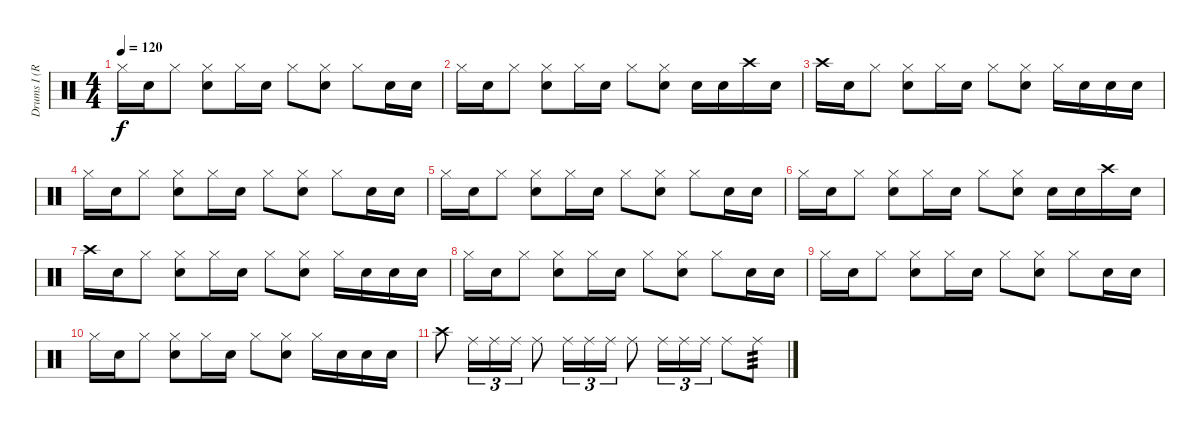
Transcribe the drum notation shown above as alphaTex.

\track ("Drums I (Ruka)" "Drums I (R") {instrument percussion}
\staff {score}
\articulation defaults
\ts (4 4)
\tempo 120
\clef neutral
\ks c "Hi-Hat (closed)".16{dy f} "Snare (hit) 2".16 "Hi-Hat (closed)".8
("Hi-Hat (closed)" "Snare (hit) 2").8 "Hi-Hat (closed)".16 "Snare (hit) 2".16 "Hi-Hat (closed)".8 ("Hi-Hat (closed)" "Snare (hit) 2").8 "Hi-Hat (closed)".8 "Snare (hit) 2".16 "Snare (hit) 2".16 |
"Hi-Hat (closed)".16 "Snare (hit) 2".16 "Hi-Hat (closed)".8 ("Hi-Hat (closed)" "Snare (hit) 2").8 "Hi-Hat (closed)".16 "Snare (hit) 2".16 "Hi-Hat (closed)".8 ("Hi-Hat (closed)" "Snare (hit) 2").8 "Snare (hit) 2".16 "Snare (hit) 2".16 "Crash high (hit)".16 "Snare (hit) 2".16 |
"Crash high (hit)".16 "Snare (hit) 2".16 "Hi-Hat (closed)".8 ("Hi-Hat (closed)" "Snare (hit) 2").8 "Hi-Hat (closed)".16 "Snare (hit) 2".16 "Hi-Hat (closed)".8 ("Hi-Hat (closed)" "Snare (hit) 2").8 "Hi-Hat (closed)".16 "Snare (hit) 2".16 "Snare (hit) 2".16 "Snare (hit) 2".16 |
"Hi-Hat (closed)".16 "Snare (hit) 2".16 "Hi-Hat (closed)".8 ("Hi-Hat (closed)" "Snare (hit) 2").8 "Hi-Hat (closed)".16 "Snare (hit) 2".16 "Hi-Hat (closed)".8 ("Hi-Hat (closed)" "Snare (hit) 2").8 "Hi-Hat (closed)".8 "Snare (hit) 2".16 "Snare (hit) 2".16 |
"Hi-Hat (closed)".16 "Snare (hit) 2".16 "Hi-Hat (closed)".8 ("Hi-Hat (closed)" "Snare (hit) 2").8 "Hi-Hat (closed)".16 "Snare (hit) 2".16 "Hi-Hat (closed)".8 ("Hi-Hat (closed)" "Snare (hit) 2").8 "Hi-Hat (closed)".8 "Snare (hit) 2".16 "Snare (hit) 2".16 |
"Hi-Hat (closed)".16 "Snare (hit) 2".16 "Hi-Hat (closed)".8 ("Hi-Hat (closed)" "Snare (hit) 2").8 "Hi-Hat (closed)".16 "Snare (hit) 2".16 "Hi-Hat (closed)".8 ("Hi-Hat (closed)" "Snare (hit) 2").8 "Snare (hit) 2".16 "Snare (hit) 2".16 "Crash high (hit)".16 "Snare (hit) 2".16 |
"Crash high (hit)".16 "Snare (hit) 2".16 "Hi-Hat (closed)".8 ("Hi-Hat (closed)" "Snare (hit) 2").8 "Hi-Hat (closed)".16 "Snare (hit) 2".16 "Hi-Hat (closed)".8 ("Hi-Hat (closed)" "Snare (hit) 2").8 "Hi-Hat (closed)".16 "Snare (hit) 2".16 "Snare (hit) 2".16 "Snare (hit) 2".16 |
"Hi-Hat (closed)".16 "Snare (hit) 2".16 "Hi-Hat (closed)".8 ("Hi-Hat (closed)" "Snare (hit) 2").8 "Hi-Hat (closed)".16 "Snare (hit) 2".16 "Hi-Hat (closed)".8 ("Hi-Hat (closed)" "Snare (hit) 2").8 "Hi-Hat (closed)".8 "Snare (hit) 2".16 "Snare (hit) 2".16 |
"Hi-Hat (closed)".16 "Snare (hit) 2".16 "Hi-Hat (closed)".8 ("Hi-Hat (closed)" "Snare (hit) 2").8 "Hi-Hat (closed)".16 "Snare (hit) 2".16 "Hi-Hat (closed)".8 ("Hi-Hat (closed)" "Snare (hit) 2").8 "Hi-Hat (closed)".8 "Snare (hit) 2".16 "Snare (hit) 2".16 |
"Hi-Hat (closed)".16 "Snare (hit) 2".16 "Hi-Hat (closed)".8 ("Hi-Hat (closed)" "Snare (hit) 2").8 "Hi-Hat (closed)".16 "Snare (hit) 2".16 "Hi-Hat (closed)".8 ("Hi-Hat (closed)" "Snare (hit) 2").8 "Hi-Hat (closed)".16 "Snare (hit) 2".16 "Snare (hit) 2".16 "Snare (hit) 2".16 |
"Crash high (hit)".8 "Ride (middle)".16{tu (3 2)} "Ride (middle)".16{tu (3 2)} "Ride (middle)".16{tu (3 2)} "Ride (middle)".8 "Ride (middle)".16{tu (3 2)} "Ride (middle)".16{tu (3 2)} "Ride (middle)".16{tu (3 2)} "Ride (middle)".8 "Ride (middle)".16{tu (3 2)} "Ride (middle)".16{tu (3 2)} "Ride (middle)".16{tu (3 2)} "Ride (middle)".8 "Ride (middle)".8{tp 3}
